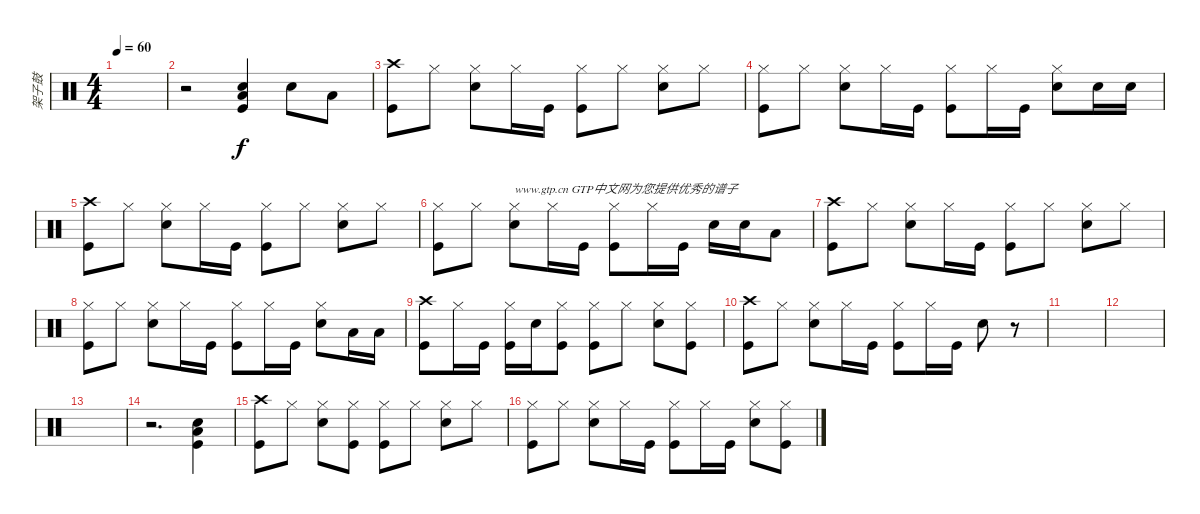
\track ("架子鼓" "架子鼓") {instrument percussion}
\staff {score}
\articulation defaults
\ts (4 4)
\tempo 60
\clef neutral
\ks c
|
r.2 ("Low Floor Tom (hit)" "Snare (hit) 2" "Kick (hit)").4 "Snare (hit) 2".8 "Low Tom (hit)".8 |
("Crash high (hit)" "Kick (hit)").8 "Hi-Hat (closed)".8 ("Hi-Hat (closed)" "Snare (hit) 2").8 "Hi-Hat (closed)".16 "Kick (hit)".16 ("Hi-Hat (closed)" "Kick (hit)").8 "Hi-Hat (closed)".8 ("Hi-Hat (closed)" "Snare (hit) 2").8 "Hi-Hat (closed)".8 |
("Hi-Hat (closed)" "Kick (hit)").8 "Hi-Hat (closed)".8 ("Hi-Hat (closed)" "Snare (hit) 2").8 "Hi-Hat (closed)".16 "Kick (hit)".16 ("Hi-Hat (closed)" "Kick (hit)").8 "Hi-Hat (closed)".16 "Kick (hit)".16 ("Hi-Hat (closed)" "Snare (hit) 2").8 "Snare (hit) 2".16 "Snare (hit) 2".16 |
("Crash high (hit)" "Kick (hit)").8 "Hi-Hat (closed)".8 ("Hi-Hat (closed)" "Snare (hit) 2").8 "Hi-Hat (closed)".16 "Kick (hit)".16 ("Hi-Hat (closed)" "Kick (hit)").8 "Hi-Hat (closed)".8 ("Hi-Hat (closed)" "Snare (hit) 2").8 "Hi-Hat (closed)".8 |
("Hi-Hat (closed)" "Kick (hit)").8 "Hi-Hat (closed)".8 ("Hi-Hat (closed)" "Snare (hit) 2").8{txt "www.gtp.cn GTP中文网为您提供优秀的谱子"} "Hi-Hat (closed)".16 "Kick (hit)".16 ("Hi-Hat (closed)" "Kick (hit)").8 "Hi-Hat (closed)".16 "Kick (hit)".16 "Snare (hit) 2".16 "Snare (hit) 2".16 "Low Tom (hit)".8 |
("Crash high (hit)" "Kick (hit)").8 "Hi-Hat (closed)".8 ("Hi-Hat (closed)" "Snare (hit) 2").8 "Hi-Hat (closed)".16 "Kick (hit)".16 ("Hi-Hat (closed)" "Kick (hit)").8 "Hi-Hat (closed)".8 ("Hi-Hat (closed)" "Snare (hit) 2").8 "Hi-Hat (closed)".8 |
("Hi-Hat (closed)" "Kick (hit)").8 "Hi-Hat (closed)".8 ("Hi-Hat (closed)" "Snare (hit) 2").8 "Hi-Hat (closed)".16 "Kick (hit)".16 ("Hi-Hat (closed)" "Kick (hit)").8 "Hi-Hat (closed)".16 "Kick (hit)".16 ("Hi-Hat (closed)" "Snare (hit) 2").8 "Low Tom (hit)".16 "Low Tom (hit)".16 |
("Crash high (hit)" "Kick (hit)").8 "Hi-Hat (closed)".16 "Kick (hit)".16 ("Hi-Hat (closed)" "Kick (hit)").16 "Snare (hit) 2".16 ("Hi-Hat (closed)" "Kick (hit)").8 ("Hi-Hat (closed)" "Kick (hit)").8 "Hi-Hat (closed)".8 ("Snare (hit) 2" "Hi-Hat (closed)").8 ("Hi-Hat (closed)" "Kick (hit)").8 |
("Crash high (hit)" "Kick (hit)").8 "Hi-Hat (closed)".8 ("Hi-Hat (closed)" "Snare (hit) 2").8 "Hi-Hat (closed)".16 "Kick (hit)".16 ("Hi-Hat (closed)" "Kick (hit)").8 "Hi-Hat (closed)".16 "Kick (hit)".16 "Snare (hit) 2".8 r.8 |
|
|
|
r.2{d} ("Snare (hit) 2" "Kick (hit)" "Low Tom (hit)").4 |
("Crash high (hit)" "Kick (hit)").8 "Hi-Hat (closed)".8 ("Hi-Hat (closed)" "Snare (hit) 2").8 ("Hi-Hat (closed)" "Kick (hit)").8 ("Hi-Hat (closed)" "Kick (hit)").8 "Hi-Hat (closed)".8 ("Hi-Hat (closed)" "Snare (hit) 2").8 "Hi-Hat (closed)".8 |
("Hi-Hat (closed)" "Kick (hit)").8 "Hi-Hat (closed)".8 ("Hi-Hat (closed)" "Snare (hit) 2").8 "Hi-Hat (closed)".16 "Kick (hit)".16 ("Hi-Hat (closed)" "Kick (hit)").8 "Hi-Hat (closed)".16 "Kick (hit)".16 ("Hi-Hat (closed)" "Snare (hit) 2").8 ("Hi-Hat (closed)" "Kick (hit)").8
